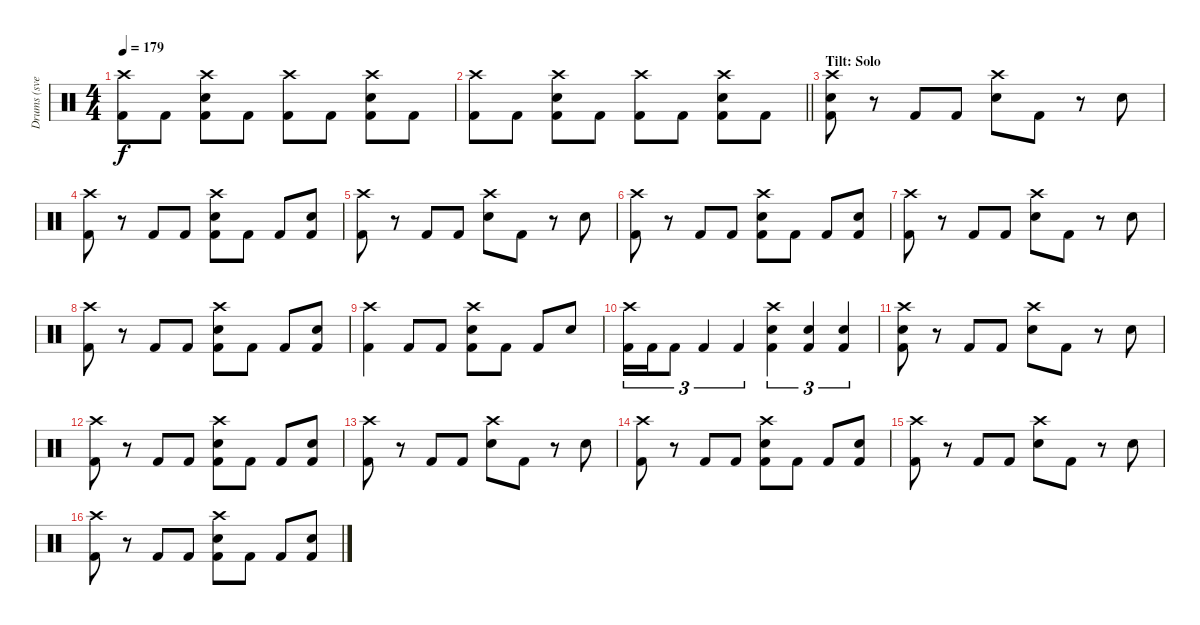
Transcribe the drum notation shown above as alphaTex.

\track ("Drums (svelle)" "Drums (sve") {instrument percussion}
\staff {score}
\articulation defaults
\ts (4 4)
\tempo 179
\clef neutral
\ks c
("Crash high (hit)" "Kick (hit) 2").8{dy f} "Kick (hit) 2".8 ("Crash high (hit)" "Electric Snare (hit)" "Kick (hit) 2").8 "Kick (hit) 2".8 ("Crash high (hit)" "Kick (hit) 2").8 "Kick (hit) 2".8 ("Crash high (hit)" "Electric Snare (hit)" "Kick (hit) 2").8 "Kick (hit) 2".8 |
\barLineRight lightlight
("Crash high (hit)" "Kick (hit) 2").8 "Kick (hit) 2".8 ("Crash high (hit)" "Electric Snare (hit)" "Kick (hit) 2").8 "Kick (hit) 2".8 ("Crash high (hit)" "Kick (hit) 2").8 "Kick (hit) 2".8 ("Crash high (hit)" "Electric Snare (hit)" "Kick (hit) 2").8 "Kick (hit) 2".8 |
\section ("" "Tilt: Solo")
("Crash high (hit)" "Electric Snare (hit)" "Kick (hit) 2").8 r.8 "Kick (hit) 2".8 "Kick (hit) 2".8 ("Crash high (hit)" "Electric Snare (hit)").8 "Kick (hit) 2".8 r.8 "Electric Snare (hit)".8 |
("Crash high (hit)" "Kick (hit) 2").8 r.8 "Kick (hit) 2".8 "Kick (hit) 2".8 ("Crash high (hit)" "Electric Snare (hit)" "Kick (hit) 2").8 "Kick (hit) 2".8 "Kick (hit) 2".8 ("Electric Snare (hit)" "Kick (hit) 2").8 |
("Crash high (hit)" "Kick (hit) 2").8 r.8 "Kick (hit) 2".8 "Kick (hit) 2".8 ("Crash high (hit)" "Electric Snare (hit)").8 "Kick (hit) 2".8 r.8 "Electric Snare (hit)".8 |
("Crash high (hit)" "Kick (hit) 2").8 r.8 "Kick (hit) 2".8 "Kick (hit) 2".8 ("Crash high (hit)" "Electric Snare (hit)" "Kick (hit) 2").8 "Kick (hit) 2".8 "Kick (hit) 2".8 ("Electric Snare (hit)" "Kick (hit) 2").8 |
("Crash high (hit)" "Kick (hit) 2").8 r.8 "Kick (hit) 2".8 "Kick (hit) 2".8 ("Crash high (hit)" "Electric Snare (hit)").8 "Kick (hit) 2".8 r.8 "Electric Snare (hit)".8 |
("Crash high (hit)" "Kick (hit) 2").8 r.8 "Kick (hit) 2".8 "Kick (hit) 2".8 ("Crash high (hit)" "Electric Snare (hit)" "Kick (hit) 2").8 "Kick (hit) 2".8 "Kick (hit) 2".8 ("Electric Snare (hit)" "Kick (hit) 2").8 |
("Crash high (hit)" "Kick (hit) 2").4 "Kick (hit) 2".8 "Kick (hit) 2".8 ("Crash high (hit)" "Electric Snare (hit)" "Kick (hit) 2").8 "Kick (hit) 2".8 "Kick (hit) 2".8 "Electric Snare (hit)".8 |
("Crash high (hit)" "Kick (hit) 2").16{tu (3 2)} "Kick (hit) 2".16{tu (3 2)} "Kick (hit) 2".8{tu (3 2)} "Kick (hit) 2".4{tu (3 2)} "Kick (hit) 2".4{tu (3 2)} ("Crash high (hit)" "Electric Snare (hit)" "Kick (hit) 2").4{tu (3 2)} ("Electric Snare (hit)" "Kick (hit) 2").4{tu (3 2)} ("Electric Snare (hit)" "Kick (hit) 2").4{tu (3 2)} |
("Crash high (hit)" "Electric Snare (hit)" "Kick (hit) 2").8 r.8 "Kick (hit) 2".8 "Kick (hit) 2".8 ("Crash high (hit)" "Electric Snare (hit)").8 "Kick (hit) 2".8 r.8 "Electric Snare (hit)".8 |
("Crash high (hit)" "Kick (hit) 2").8 r.8 "Kick (hit) 2".8 "Kick (hit) 2".8 ("Crash high (hit)" "Electric Snare (hit)" "Kick (hit) 2").8 "Kick (hit) 2".8 "Kick (hit) 2".8 ("Electric Snare (hit)" "Kick (hit) 2").8 |
("Crash high (hit)" "Kick (hit) 2").8 r.8 "Kick (hit) 2".8 "Kick (hit) 2".8 ("Crash high (hit)" "Electric Snare (hit)").8 "Kick (hit) 2".8 r.8 "Electric Snare (hit)".8 |
("Crash high (hit)" "Kick (hit) 2").8 r.8 "Kick (hit) 2".8 "Kick (hit) 2".8 ("Crash high (hit)" "Electric Snare (hit)" "Kick (hit) 2").8 "Kick (hit) 2".8 "Kick (hit) 2".8 ("Electric Snare (hit)" "Kick (hit) 2").8 |
("Crash high (hit)" "Kick (hit) 2").8 r.8 "Kick (hit) 2".8 "Kick (hit) 2".8 ("Crash high (hit)" "Electric Snare (hit)").8 "Kick (hit) 2".8 r.8 "Electric Snare (hit)".8 |
("Crash high (hit)" "Kick (hit) 2").8 r.8 "Kick (hit) 2".8 "Kick (hit) 2".8 ("Crash high (hit)" "Electric Snare (hit)" "Kick (hit) 2").8 "Kick (hit) 2".8 "Kick (hit) 2".8 ("Electric Snare (hit)" "Kick (hit) 2").8
